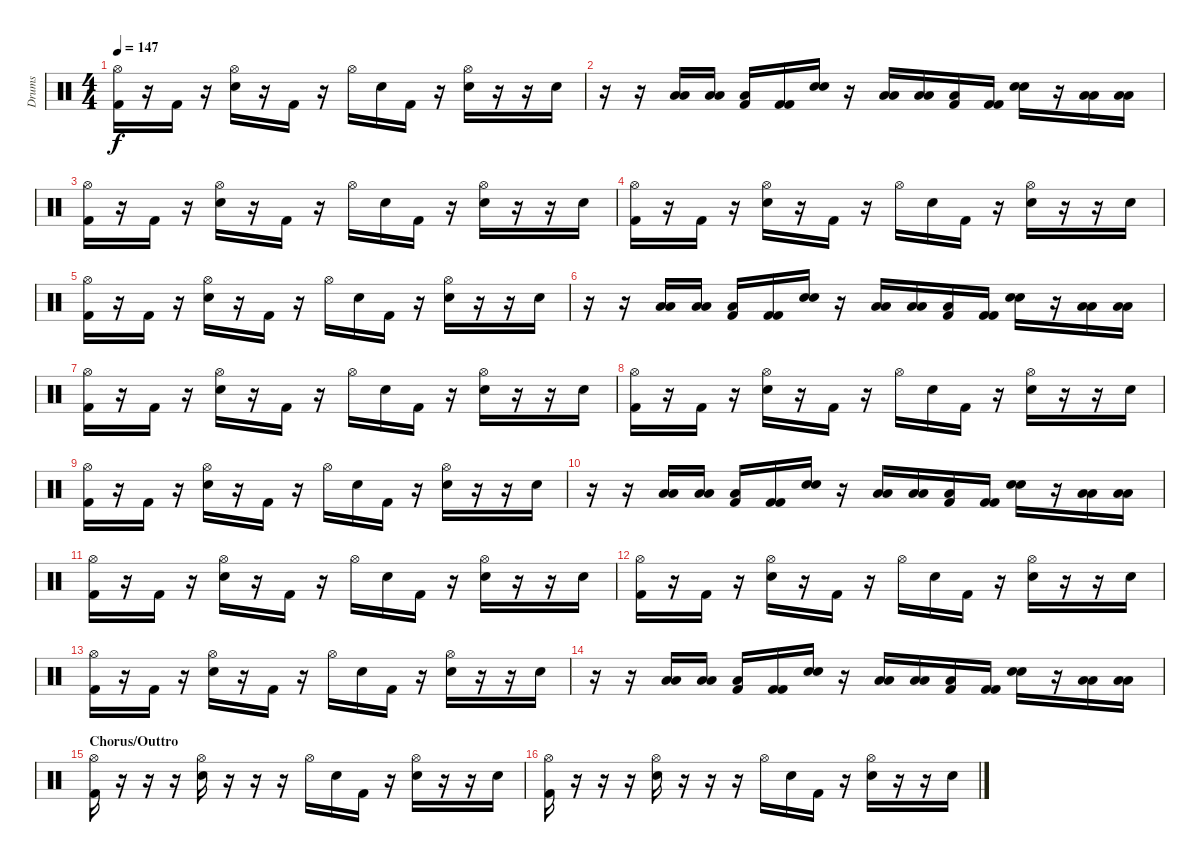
\track ("Drums" "Drums") {instrument percussion}
\staff {score}
\articulation defaults
\ts (4 4)
\tempo 147
\clef neutral
\ks c
("Hi-Hat (open)" "Kick (hit) 2").16{dy f} r.16 "Kick (hit) 2".16 r.16 ("Hi-Hat (open)" "Snare (hit) 2").16 r.16 "Kick (hit) 2".16 r.16 "Hi-Hat (open)".16 "Snare (hit) 2".16 "Kick (hit) 2".16 r.16 ("Hi-Hat (open)" "Snare (hit) 2").16 r.16 r.16 "Snare (hit) 2".16 |
r.16 r.16 ("Low Tom (hit)" "Low Tom (hit)").16 ("Low Tom (hit)" "Low Tom (hit)").16 ("Low Tom (hit)" "Kick (hit) 2").16 ("Kick (hit) 2" "Kick (hit) 2").16 ("Snare (hit) 2" "Snare (hit) 2").16 r.16 ("Low Tom (hit)" "Low Tom (hit)").16 ("Low Tom (hit)" "Low Tom (hit)").16 ("Low Tom (hit)" "Kick (hit) 2").16 ("Kick (hit) 2" "Kick (hit) 2").16 ("Snare (hit) 2" "Snare (hit) 2").16 r.16 ("Low Tom (hit)" "Low Tom (hit)").16 ("Low Tom (hit)" "Low Tom (hit)").16 |
("Hi-Hat (open)" "Kick (hit) 2").16 r.16 "Kick (hit) 2".16 r.16 ("Hi-Hat (open)" "Snare (hit) 2").16 r.16 "Kick (hit) 2".16 r.16 "Hi-Hat (open)".16 "Snare (hit) 2".16 "Kick (hit) 2".16 r.16 ("Hi-Hat (open)" "Snare (hit) 2").16 r.16 r.16 "Snare (hit) 2".16 |
("Hi-Hat (open)" "Kick (hit) 2").16 r.16 "Kick (hit) 2".16 r.16 ("Hi-Hat (open)" "Snare (hit) 2").16 r.16 "Kick (hit) 2".16 r.16 "Hi-Hat (open)".16 "Snare (hit) 2".16 "Kick (hit) 2".16 r.16 ("Hi-Hat (open)" "Snare (hit) 2").16 r.16 r.16 "Snare (hit) 2".16 |
("Hi-Hat (open)" "Kick (hit) 2").16 r.16 "Kick (hit) 2".16 r.16 ("Hi-Hat (open)" "Snare (hit) 2").16 r.16 "Kick (hit) 2".16 r.16 "Hi-Hat (open)".16 "Snare (hit) 2".16 "Kick (hit) 2".16 r.16 ("Hi-Hat (open)" "Snare (hit) 2").16 r.16 r.16 "Snare (hit) 2".16 |
r.16 r.16 ("Low Tom (hit)" "Low Tom (hit)").16 ("Low Tom (hit)" "Low Tom (hit)").16 ("Low Tom (hit)" "Kick (hit) 2").16 ("Kick (hit) 2" "Kick (hit) 2").16 ("Snare (hit) 2" "Snare (hit) 2").16 r.16 ("Low Tom (hit)" "Low Tom (hit)").16 ("Low Tom (hit)" "Low Tom (hit)").16 ("Low Tom (hit)" "Kick (hit) 2").16 ("Kick (hit) 2" "Kick (hit) 2").16 ("Snare (hit) 2" "Snare (hit) 2").16 r.16 ("Low Tom (hit)" "Low Tom (hit)").16 ("Low Tom (hit)" "Low Tom (hit)").16 |
("Hi-Hat (open)" "Kick (hit) 2").16 r.16 "Kick (hit) 2".16 r.16 ("Hi-Hat (open)" "Snare (hit) 2").16 r.16 "Kick (hit) 2".16 r.16 "Hi-Hat (open)".16 "Snare (hit) 2".16 "Kick (hit) 2".16 r.16 ("Hi-Hat (open)" "Snare (hit) 2").16 r.16 r.16 "Snare (hit) 2".16 |
("Hi-Hat (open)" "Kick (hit) 2").16 r.16 "Kick (hit) 2".16 r.16 ("Hi-Hat (open)" "Snare (hit) 2").16 r.16 "Kick (hit) 2".16 r.16 "Hi-Hat (open)".16 "Snare (hit) 2".16 "Kick (hit) 2".16 r.16 ("Hi-Hat (open)" "Snare (hit) 2").16 r.16 r.16 "Snare (hit) 2".16 |
("Hi-Hat (open)" "Kick (hit) 2").16 r.16 "Kick (hit) 2".16 r.16 ("Hi-Hat (open)" "Snare (hit) 2").16 r.16 "Kick (hit) 2".16 r.16 "Hi-Hat (open)".16 "Snare (hit) 2".16 "Kick (hit) 2".16 r.16 ("Hi-Hat (open)" "Snare (hit) 2").16 r.16 r.16 "Snare (hit) 2".16 |
r.16 r.16 ("Low Tom (hit)" "Low Tom (hit)").16 ("Low Tom (hit)" "Low Tom (hit)").16 ("Low Tom (hit)" "Kick (hit) 2").16 ("Kick (hit) 2" "Kick (hit) 2").16 ("Snare (hit) 2" "Snare (hit) 2").16 r.16 ("Low Tom (hit)" "Low Tom (hit)").16 ("Low Tom (hit)" "Low Tom (hit)").16 ("Low Tom (hit)" "Kick (hit) 2").16 ("Kick (hit) 2" "Kick (hit) 2").16 ("Snare (hit) 2" "Snare (hit) 2").16 r.16 ("Low Tom (hit)" "Low Tom (hit)").16 ("Low Tom (hit)" "Low Tom (hit)").16 |
("Hi-Hat (open)" "Kick (hit) 2").16 r.16 "Kick (hit) 2".16 r.16 ("Hi-Hat (open)" "Snare (hit) 2").16 r.16 "Kick (hit) 2".16 r.16 "Hi-Hat (open)".16 "Snare (hit) 2".16 "Kick (hit) 2".16 r.16 ("Hi-Hat (open)" "Snare (hit) 2").16 r.16 r.16 "Snare (hit) 2".16 |
("Hi-Hat (open)" "Kick (hit) 2").16 r.16 "Kick (hit) 2".16 r.16 ("Hi-Hat (open)" "Snare (hit) 2").16 r.16 "Kick (hit) 2".16 r.16 "Hi-Hat (open)".16 "Snare (hit) 2".16 "Kick (hit) 2".16 r.16 ("Hi-Hat (open)" "Snare (hit) 2").16 r.16 r.16 "Snare (hit) 2".16 |
("Hi-Hat (open)" "Kick (hit) 2").16 r.16 "Kick (hit) 2".16 r.16 ("Hi-Hat (open)" "Snare (hit) 2").16 r.16 "Kick (hit) 2".16 r.16 "Hi-Hat (open)".16 "Snare (hit) 2".16 "Kick (hit) 2".16 r.16 ("Hi-Hat (open)" "Snare (hit) 2").16 r.16 r.16 "Snare (hit) 2".16 |
r.16 r.16 ("Low Tom (hit)" "Low Tom (hit)").16 ("Low Tom (hit)" "Low Tom (hit)").16 ("Low Tom (hit)" "Kick (hit) 2").16 ("Kick (hit) 2" "Kick (hit) 2").16 ("Snare (hit) 2" "Snare (hit) 2").16 r.16 ("Low Tom (hit)" "Low Tom (hit)").16 ("Low Tom (hit)" "Low Tom (hit)").16 ("Low Tom (hit)" "Kick (hit) 2").16 ("Kick (hit) 2" "Kick (hit) 2").16 ("Snare (hit) 2" "Snare (hit) 2").16 r.16 ("Low Tom (hit)" "Low Tom (hit)").16 ("Low Tom (hit)" "Low Tom (hit)").16 |
\section ("" "Chorus/Outtro")
("Hi-Hat (open)" "Kick (hit) 2").16 r.16 r.16 r.16 ("Hi-Hat (open)" "Snare (hit) 2").16 r.16 r.16 r.16 "Hi-Hat (open)".16 "Snare (hit) 2".16 "Kick (hit) 2".16 r.16 ("Hi-Hat (open)" "Snare (hit) 2").16 r.16 r.16 "Snare (hit) 2".16 |
("Hi-Hat (open)" "Kick (hit) 2").16 r.16 r.16 r.16 ("Hi-Hat (open)" "Snare (hit) 2").16 r.16 r.16 r.16 "Hi-Hat (open)".16 "Snare (hit) 2".16 "Kick (hit) 2".16 r.16 ("Hi-Hat (open)" "Snare (hit) 2").16 r.16 r.16 "Snare (hit) 2".16
